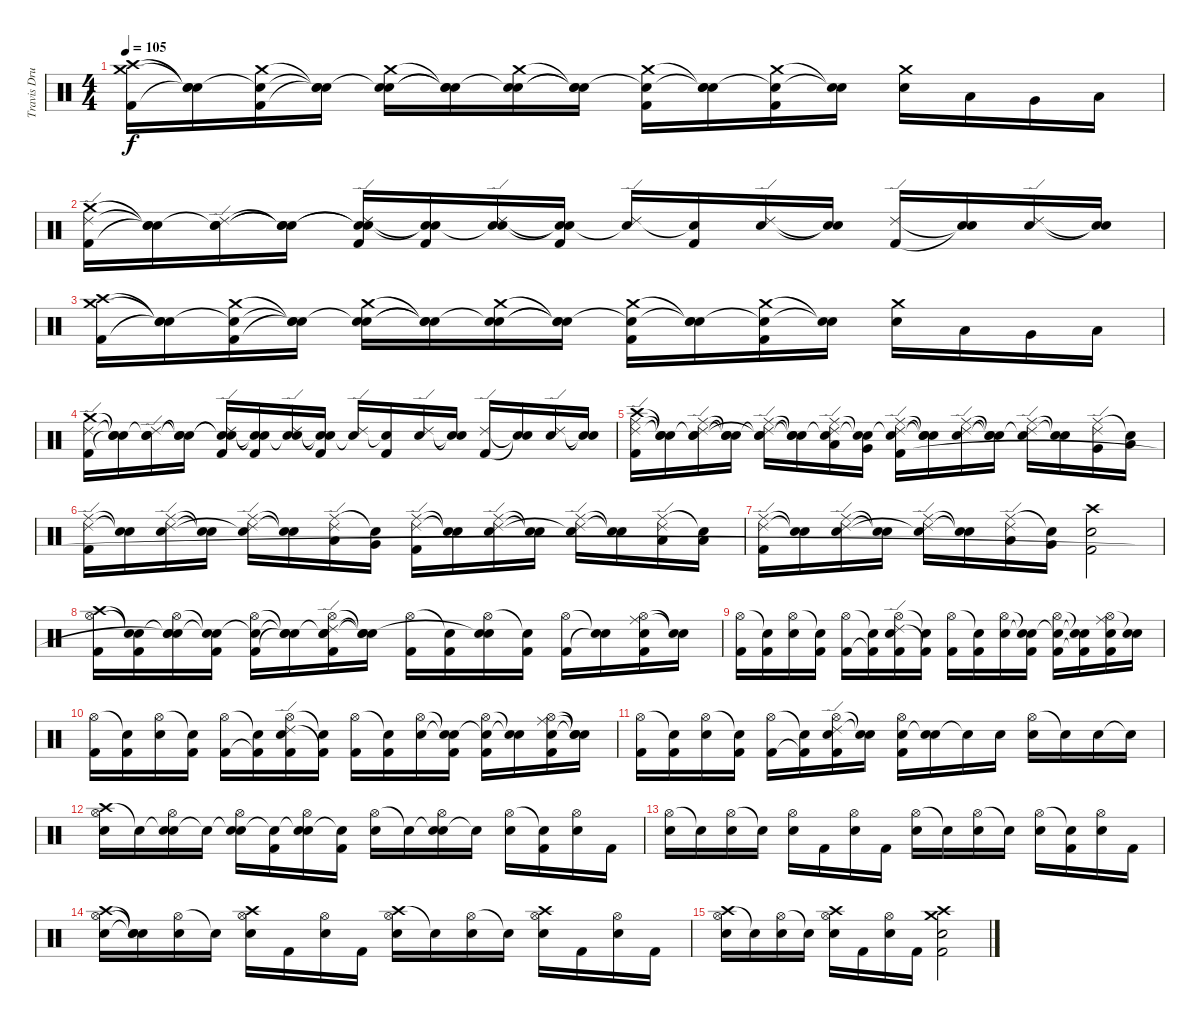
\track ("Travis Drums" "Travis Dru") {instrument percussion}
\staff {score}
\articulation defaults
\ts (4 4)
\tempo 105
\clef neutral
\ks c
("Crash high (hit)" "Crash medium (hit)" "Kick (hit) 2").16{dy f volume 10} ("Snare (hit)"{t} "Snare (hit)"{t} "Snare (hit)"{t}).16 ("Snare (hit)"{t} "Crash medium (hit)" "Kick (hit) 2").16 ("Snare (hit)"{t} "Snare (hit)"{t} "Snare (hit)"{t}).16 ("Snare (hit)"{t} "Crash medium (hit)" "Electric Snare (hit)").16 ("Snare (hit)"{t} "Snare (hit)"{t} "Electric Snare (hit)"{t}).16 ("Snare (hit)"{t} "Crash medium (hit)" "Electric Snare (hit)").16 ("Snare (hit)"{t} "Snare (hit)"{t} "Snare (hit)"{t}).16 ("Snare (hit)"{t} "Crash medium (hit)" "Kick (hit) 2").16 ("Snare (hit)"{t} "Snare (hit)"{t} "Electric Snare (hit)").16 ("Snare (hit)"{t} "Crash medium (hit)" "Kick (hit) 2").16 ("Snare (hit)"{t} "Snare (hit)"{t}).16 ("Crash medium (hit)" "Electric Snare (hit)").16 "Low Tom (hit)".16 "Very Low Tom (hit)".16 "Low Floor Tom (hit)".16 |
("Crash medium (hit)" "Ride (edge) 2" "Kick (hit) 2").16 ("Snare (hit)"{t} "Snare (hit)"{t} "Snare (hit)"{t}).16 ("Snare (hit)"{t} "Ride (edge) 2" "Electric Snare (hit)").16 ("Snare (hit)"{t} "Snare (hit)"{t} "Snare (hit)"{t}).16 ("Snare (hit)"{t} "Ride (edge) 2" "Snare (hit)"{t} "Kick (hit) 2").16 ("Snare (hit)"{t} "Snare (hit)"{t} "Kick (hit) 2").16 ("Snare (hit)"{t} "Ride (edge) 2" "Electric Snare (hit)").16 ("Snare (hit)"{t} "Snare (hit)"{t} "Kick (hit) 2").16 ("Ride (edge) 2" "Snare (hit)"{t}).16 ("Snare (hit)"{t} "Kick (hit) 2").16 ("Ride (edge) 2" "Electric Snare (hit)").16 ("Snare (hit)"{t} "Snare (hit)"{t}).16 ("Ride (edge) 2" "Kick (hit) 2").16 ("Snare (hit)"{t} "Snare (hit)"{t}).16 ("Ride (edge) 2" "Electric Snare (hit)").16 ("Snare (hit)"{t} "Snare (hit)"{t}).16 |
("Crash high (hit)" "Crash medium (hit)" "Kick (hit) 2").16{volume 10} ("Snare (hit)"{t} "Snare (hit)"{t} "Snare (hit)"{t}).16 ("Snare (hit)"{t} "Crash medium (hit)" "Kick (hit) 2").16 ("Snare (hit)"{t} "Snare (hit)"{t} "Snare (hit)"{t}).16 ("Snare (hit)"{t} "Crash medium (hit)" "Electric Snare (hit)").16 ("Snare (hit)"{t} "Snare (hit)"{t} "Electric Snare (hit)"{t}).16 ("Snare (hit)"{t} "Crash medium (hit)" "Electric Snare (hit)").16 ("Snare (hit)"{t} "Snare (hit)"{t} "Snare (hit)"{t}).16 ("Snare (hit)"{t} "Crash medium (hit)" "Kick (hit) 2").16 ("Snare (hit)"{t} "Snare (hit)"{t} "Electric Snare (hit)").16 ("Snare (hit)"{t} "Crash medium (hit)" "Kick (hit) 2").16 ("Snare (hit)"{t} "Snare (hit)"{t}).16 ("Crash medium (hit)" "Electric Snare (hit)").16 "Low Tom (hit)".16 "Very Low Tom (hit)".16 "Low Floor Tom (hit)".16 |
("Crash medium (hit)" "Ride (edge) 2" "Kick (hit) 2").16 ("Snare (hit)"{t} "Snare (hit)"{t} "Snare (hit)"{t}).16 ("Snare (hit)"{t} "Ride (edge) 2" "Electric Snare (hit)").16 ("Snare (hit)"{t} "Snare (hit)"{t} "Snare (hit)"{t}).16 ("Snare (hit)"{t} "Ride (edge) 2" "Snare (hit)"{t} "Kick (hit) 2").16 ("Snare (hit)"{t} "Snare (hit)"{t} "Kick (hit) 2").16 ("Snare (hit)"{t} "Ride (edge) 2" "Electric Snare (hit)").16 ("Snare (hit)"{t} "Snare (hit)"{t} "Kick (hit) 2").16 ("Ride (edge) 2" "Snare (hit)"{t}).16 ("Snare (hit)"{t} "Kick (hit) 2").16 ("Ride (edge) 2" "Electric Snare (hit)").16 ("Snare (hit)"{t} "Snare (hit)"{t}).16 ("Ride (edge) 2" "Kick (hit) 2").16 ("Snare (hit)"{t} "Snare (hit)"{t}).16 ("Ride (edge) 2" "Electric Snare (hit)").16 ("Snare (hit)"{t} "Snare (hit)"{t}).16 |
("Crash high (hit)" "Ride (middle)" "Ride (edge) 2" "Kick (hit) 2").16 ("Snare (hit)"{t} "Snare (hit)"{t} "Snare (hit)"{t}).16 ("Snare (hit)"{t} "Ride (middle)" "Ride (edge) 2" "Electric Snare (hit)").16 ("Snare (hit)"{t} "Snare (hit)"{t} "Snare (hit)"{t}).16 ("Snare (hit)"{t} "Ride (middle)" "Ride (edge) 2" "Snare (hit)"{t}).16 ("Snare (hit)"{t} "Snare (hit)"{t} "Snare (hit)"{t}).16 ("Snare (hit)"{t} "Ride (middle)" "Ride (edge) 2" "Low Tom (hit)").16 ("Snare (hit)"{t} "Snare (hit)"{t} "Very Low Tom (hit)").16 ("Snare (hit)"{t} "Ride (middle)" "Ride (edge) 2" "Kick (hit) 2").16 ("Snare (hit)"{t} "Snare (hit)"{t} "Snare (hit)"{t}).16 ("Ride (middle)" "Ride (edge) 2" "Electric Snare (hit)").16 ("Snare (hit)"{t} "Snare (hit)"{t} "Snare (hit)"{t}).16 ("Ride (middle)" "Ride (edge) 2" "Snare (hit)"{t}).16 ("Snare (hit)"{t} "Snare (hit)"{t}).16 ("Ride (middle)" "Ride (edge) 2" "Very Low Tom (hit)").16 ("Snare (hit)"{t} "Low Floor Tom (hit)").16 |
("Ride (middle)" "Ride (edge) 2" "Kick (hit) 2").16 ("Snare (hit)"{t} "Snare (hit)"{t}).16 ("Ride (middle)" "Ride (edge) 2" "Electric Snare (hit)").16 ("Snare (hit)"{t} "Snare (hit)"{t}).16 ("Ride (middle)" "Ride (edge) 2" "Snare (hit)"{t}).16 ("Snare (hit)"{t} "Snare (hit)"{t}).16 ("Ride (middle)" "Ride (edge) 2" "Low Tom (hit)").16 ("Snare (hit)"{t} "Very Low Tom (hit)").16 ("Ride (middle)" "Ride (edge) 2" "Kick (hit) 2").16 ("Snare (hit)"{t} "Snare (hit)"{t}).16 ("Ride (middle)" "Ride (edge) 2" "Electric Snare (hit)").16 ("Snare (hit)"{t} "Snare (hit)"{t}).16 ("Ride (middle)" "Ride (edge) 2" "Snare (hit)"{t}).16 ("Snare (hit)"{t} "Snare (hit)"{t}).16 ("Ride (middle)" "Ride (edge) 2" "Low Tom (hit)").16 ("Snare (hit)"{t} "Low Floor Tom (hit)").16 |
("Ride (middle)" "Ride (edge) 2" "Kick (hit) 2").16 ("Snare (hit)"{t} "Snare (hit)"{t}).16 ("Ride (middle)" "Ride (edge) 2" "Electric Snare (hit)").16 ("Snare (hit)"{t} "Snare (hit)"{t}).16 ("Ride (middle)" "Ride (edge) 2" "Snare (hit)"{t}).16 ("Snare (hit)"{t} "Snare (hit)"{t}).16 ("Ride (middle)" "Ride (edge) 2" "Low Tom (hit)").16 ("Snare (hit)"{t} "Very Low Tom (hit)").16 ("Crash high (hit)" "Electric Snare (hit)" "Kick (hit) 2").2 |
("Crash high (hit)" "Hi-Hat (open)" "Kick (hit) 2").16 ("Snare (hit)"{t} "Snare (hit)"{t} "Kick (hit) 2").16 ("Snare (hit)"{t} "Hi-Hat (open)" "Electric Snare (hit)" "Snare (hit)"{t}).16 ("Snare (hit)"{t} "Snare (hit)"{t} "Kick (hit) 2").16 ("Snare (hit)"{t} "Hi-Hat (open)" "Kick (hit) 2").16 ("Snare (hit)"{t} "Snare (hit)"{t} "Snare (hit)"{t}).16 ("Snare (hit)"{t} "Hi-Hat (open)" "Ride (edge) 2" "Electric Snare (hit)" "Kick (hit) 2").16 ("Snare (hit)"{t} "Snare (hit)"{t} "Snare (hit)"{t}).16 ("Hi-Hat (open)" "Kick (hit) 2").16 ("Snare (hit)"{t} "Kick (hit) 2").16 ("Hi-Hat (open)" "Electric Snare (hit)" "Snare (hit)"{t}).16 ("Snare (hit)"{t} "Kick (hit) 2").16 ("Hi-Hat (open)" "Kick (hit) 2").16 ("Snare (hit)"{t} "Snare (hit)"{t}).16 ("Hi-Hat (open)" "Ride (middle)" "Electric Snare (hit)" "Kick (hit) 2").16 ("Snare (hit)"{t} "Snare (hit)"{t}).16 |
("Hi-Hat (open)" "Kick (hit) 2").16 ("Snare (hit)"{t} "Kick (hit) 2").16 ("Hi-Hat (open)" "Electric Snare (hit)").16 ("Snare (hit)"{t} "Kick (hit) 2").16 ("Hi-Hat (open)" "Kick (hit) 2").16 ("Snare (hit)"{t} "Kick (hit) 2"{t}).16 ("Hi-Hat (open)" "Ride (edge) 2" "Electric Snare (hit)" "Kick (hit) 2").16 ("Snare (hit)"{t} "Kick (hit) 2"{t}).16 ("Hi-Hat (open)" "Kick (hit) 2").16 ("Snare (hit)"{t} "Kick (hit) 2").16 ("Hi-Hat (open)" "Electric Snare (hit)").16 ("Snare (hit)"{t} "Snare (hit)"{t} "Kick (hit) 2").16 ("Hi-Hat (open)" "Electric Snare (hit)"{t} "Kick (hit) 2").16 ("Snare (hit)"{t} "Snare (hit)"{t} "Kick (hit) 2"{t}).16 ("Hi-Hat (open)" "Ride (middle)" "Electric Snare (hit)" "Kick (hit) 2").16 ("Snare (hit)"{t} "Electric Snare (hit)").16 |
("Hi-Hat (open)" "Kick (hit) 2").16 ("Snare (hit)"{t} "Kick (hit) 2").16 ("Hi-Hat (open)" "Electric Snare (hit)").16 ("Snare (hit)"{t} "Kick (hit) 2").16 ("Hi-Hat (open)" "Kick (hit) 2").16 ("Snare (hit)"{t} "Kick (hit) 2"{t}).16 ("Hi-Hat (open)" "Ride (edge) 2" "Electric Snare (hit)" "Kick (hit) 2").16 ("Snare (hit)"{t} "Kick (hit) 2"{t}).16 ("Hi-Hat (open)" "Kick (hit) 2").16 ("Snare (hit)"{t} "Kick (hit) 2").16 ("Hi-Hat (open)" "Electric Snare (hit)").16 ("Snare (hit)"{t} "Snare (hit)"{t} "Kick (hit) 2").16 ("Hi-Hat (open)" "Snare (hit)"{t} "Kick (hit) 2").16 ("Snare (hit)"{t} "Snare (hit)"{t}).16 ("Hi-Hat (open)" "Ride (middle)" "Electric Snare (hit)" "Kick (hit) 2").16 ("Snare (hit)"{t} "Snare (hit)"{t} "Snare (hit)"{t}).16 |
("Hi-Hat (open)" "Kick (hit) 2").16 ("Snare (hit)"{t} "Kick (hit) 2").16 ("Hi-Hat (open)" "Electric Snare (hit)").16 ("Snare (hit)"{t} "Kick (hit) 2").16 ("Hi-Hat (open)" "Kick (hit) 2").16 ("Snare (hit)"{t} "Kick (hit) 2"{t}).16 ("Hi-Hat (open)" "Ride (edge) 2" "Electric Snare (hit)" "Kick (hit) 2").16 ("Snare (hit)"{t} "Electric Snare (hit)"{t}).16 ("Hi-Hat (open)" "Electric Snare (hit)" "Kick (hit) 2").16 ("Electric Snare (hit)" "Snare (hit)"{t}).16 "Electric Snare (hit)"{t}.16 "Electric Snare (hit)".16 ("Hi-Hat (open)" "Electric Snare (hit)").16 "Electric Snare (hit)"{t}.16 "Electric Snare (hit)".16 "Snare (hit)"{t}.16 |
("Crash high (hit)" "Hi-Hat (open)" "Electric Snare (hit)").16 "Snare (hit)"{t}.16 ("Snare (hit)"{t} "Hi-Hat (open)" "Electric Snare (hit)").16 "Snare (hit)"{t}.16 ("Snare (hit)"{t} "Hi-Hat (open)" "Electric Snare (hit)").16 ("Snare (hit)"{t} "Kick (hit) 2").16 ("Snare (hit)"{t} "Hi-Hat (open)" "Electric Snare (hit)").16 ("Snare (hit)"{t} "Kick (hit) 2").16 ("Hi-Hat (open)" "Electric Snare (hit)").16 "Snare (hit)"{t}.16 ("Snare (hit)"{t} "Hi-Hat (open)" "Electric Snare (hit)").16 "Snare (hit)"{t}.16 ("Hi-Hat (open)" "Electric Snare (hit)").16 ("Snare (hit)"{t} "Kick (hit) 2").16 ("Hi-Hat (open)" "Electric Snare (hit)").16 "Kick (hit) 2".16 |
("Hi-Hat (open)" "Electric Snare (hit)").16 "Snare (hit)"{t}.16 ("Hi-Hat (open)" "Electric Snare (hit)").16 "Snare (hit)"{t}.16 ("Hi-Hat (open)" "Electric Snare (hit)").16 "Kick (hit) 2".16 ("Hi-Hat (open)" "Electric Snare (hit)").16 "Kick (hit) 2".16 ("Hi-Hat (open)" "Electric Snare (hit)").16 "Snare (hit)"{t}.16 ("Hi-Hat (open)" "Electric Snare (hit)").16 "Snare (hit)"{t}.16 ("Hi-Hat (open)" "Electric Snare (hit)").16 ("Snare (hit)"{t} "Kick (hit) 2").16 ("Hi-Hat (open)" "Electric Snare (hit)").16 "Kick (hit) 2".16 |
("Crash high (hit)" "Hi-Hat (open)" "Electric Snare (hit)").16 ("Snare (hit)"{t} "Snare (hit)"{t} "Snare (hit)"{t}).16 ("Hi-Hat (open)" "Electric Snare (hit)").16 "Snare (hit)"{t}.16 ("Crash high (hit)" "Hi-Hat (open)" "Electric Snare (hit)").16 "Kick (hit) 2".16 ("Hi-Hat (open)" "Electric Snare (hit)").16 "Kick (hit) 2".16 ("Crash high (hit)" "Hi-Hat (open)" "Electric Snare (hit)").16 "Snare (hit)"{t}.16 ("Hi-Hat (open)" "Electric Snare (hit)").16 "Snare (hit)"{t}.16 ("Crash high (hit)" "Hi-Hat (open)" "Electric Snare (hit)").16 "Kick (hit) 2".16 ("Hi-Hat (open)" "Electric Snare (hit)").16 "Kick (hit) 2".16 |
("Crash high (hit)" "Hi-Hat (open)" "Electric Snare (hit)").16 "Snare (hit)"{t}.16 ("Hi-Hat (open)" "Electric Snare (hit)").16 "Snare (hit)"{t}.16 ("Crash high (hit)" "Hi-Hat (open)" "Electric Snare (hit)").16 "Kick (hit) 2".16 ("Hi-Hat (open)" "Electric Snare (hit)").16 "Kick (hit) 2".16 ("Crash medium (hit)" "Crash high (hit)" "Electric Snare (hit)" "Kick (hit) 2").2
